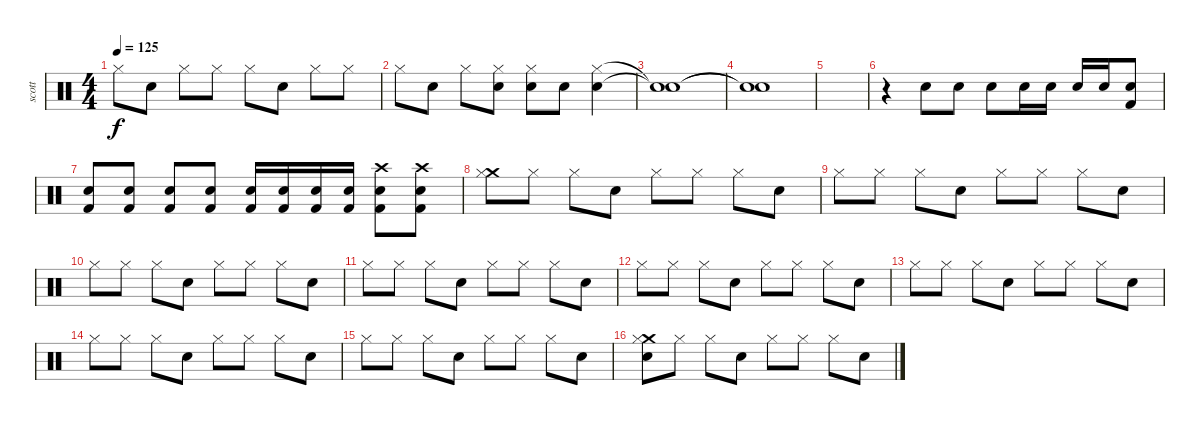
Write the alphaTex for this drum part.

\track ("scott" "scott") {instrument percussion}
\staff {score}
\articulation defaults
\ts (4 4)
\tempo 125
\clef neutral
\ks c "Hi-Hat (closed)".8{dy f} "Snare (hit) 2".8 "Hi-Hat (closed)".8 "Hi-Hat (closed)".8 "Hi-Hat (closed)".8 "Snare (hit) 2".8 "Hi-Hat (closed)".8 "Hi-Hat (closed)".8
|
"Hi-Hat (closed)".8 "Snare (hit) 2".8 "Hi-Hat (closed)".8 ("Snare (hit) 2" "Hi-Hat (closed)").8 ("Snare (hit) 2" "Hi-Hat (closed)").8 "Snare (hit) 2".8 ("Snare (hit) 2" "Hi-Hat (closed)").4 |
("Snare (hit)"{t} "Snare (hit)"{t}).1 |
("Snare (hit)"{t} "Snare (hit)"{t}).1 |
|
r.4 "Snare (hit) 2".8 "Snare (hit) 2".8 "Snare (hit) 2".8 "Snare (hit) 2".16 "Snare (hit) 2".16 "Snare (hit) 2".16 "Snare (hit) 2".16 ("Kick (hit) 2" "Snare (hit) 2").8 |
("Kick (hit) 2" "Snare (hit) 2").8 ("Kick (hit) 2" "Snare (hit) 2").8 ("Kick (hit) 2" "Snare (hit) 2").8 ("Kick (hit) 2" "Snare (hit) 2").8 ("Kick (hit) 2" "Snare (hit) 2").16 ("Kick (hit) 2" "Snare (hit) 2").16 ("Kick (hit) 2" "Snare (hit) 2").16 ("Kick (hit) 2" "Snare (hit) 2").16 ("Kick (hit) 2" "Snare (hit) 2" "Crash high (hit)").8 ("Kick (hit) 2" "Snare (hit) 2" "Crash high (hit)").8 |
("Crash medium (hit)" "Hi-Hat (closed)").8 "Hi-Hat (closed)".8 "Hi-Hat (closed)".8 "Snare (hit) 2".8 "Hi-Hat (closed)".8 "Hi-Hat (closed)".8 "Hi-Hat (closed)".8 "Snare (hit) 2".8 |
"Hi-Hat (closed)".8 "Hi-Hat (closed)".8 "Hi-Hat (closed)".8 "Snare (hit) 2".8 "Hi-Hat (closed)".8 "Hi-Hat (closed)".8 "Hi-Hat (closed)".8 "Snare (hit) 2".8 |
"Hi-Hat (closed)".8 "Hi-Hat (closed)".8 "Hi-Hat (closed)".8 "Snare (hit) 2".8 "Hi-Hat (closed)".8 "Hi-Hat (closed)".8 "Hi-Hat (closed)".8 "Snare (hit) 2".8 |
"Hi-Hat (closed)".8 "Hi-Hat (closed)".8 "Hi-Hat (closed)".8 "Snare (hit) 2".8 "Hi-Hat (closed)".8 "Hi-Hat (closed)".8 "Hi-Hat (closed)".8 "Snare (hit) 2".8 |
"Hi-Hat (closed)".8 "Hi-Hat (closed)".8 "Hi-Hat (closed)".8 "Snare (hit) 2".8 "Hi-Hat (closed)".8 "Hi-Hat (closed)".8 "Hi-Hat (closed)".8 "Snare (hit) 2".8 |
"Hi-Hat (closed)".8 "Hi-Hat (closed)".8 "Hi-Hat (closed)".8 "Snare (hit) 2".8 "Hi-Hat (closed)".8 "Hi-Hat (closed)".8 "Hi-Hat (closed)".8 "Snare (hit) 2".8 |
"Hi-Hat (closed)".8 "Hi-Hat (closed)".8 "Hi-Hat (closed)".8 "Snare (hit) 2".8 "Hi-Hat (closed)".8 "Hi-Hat (closed)".8 "Hi-Hat (closed)".8 "Snare (hit) 2".8 |
"Hi-Hat (closed)".8 "Hi-Hat (closed)".8 "Hi-Hat (closed)".8 "Snare (hit) 2".8 "Hi-Hat (closed)".8 "Hi-Hat (closed)".8 "Hi-Hat (closed)".8 "Snare (hit) 2".8 |
("Crash medium (hit)" "Snare (hit) 2" "Hi-Hat (closed)").8 "Hi-Hat (closed)".8 "Hi-Hat (closed)".8 "Snare (hit) 2".8 "Hi-Hat (closed)".8 "Hi-Hat (closed)".8 "Hi-Hat (closed)".8 "Snare (hit) 2".8
